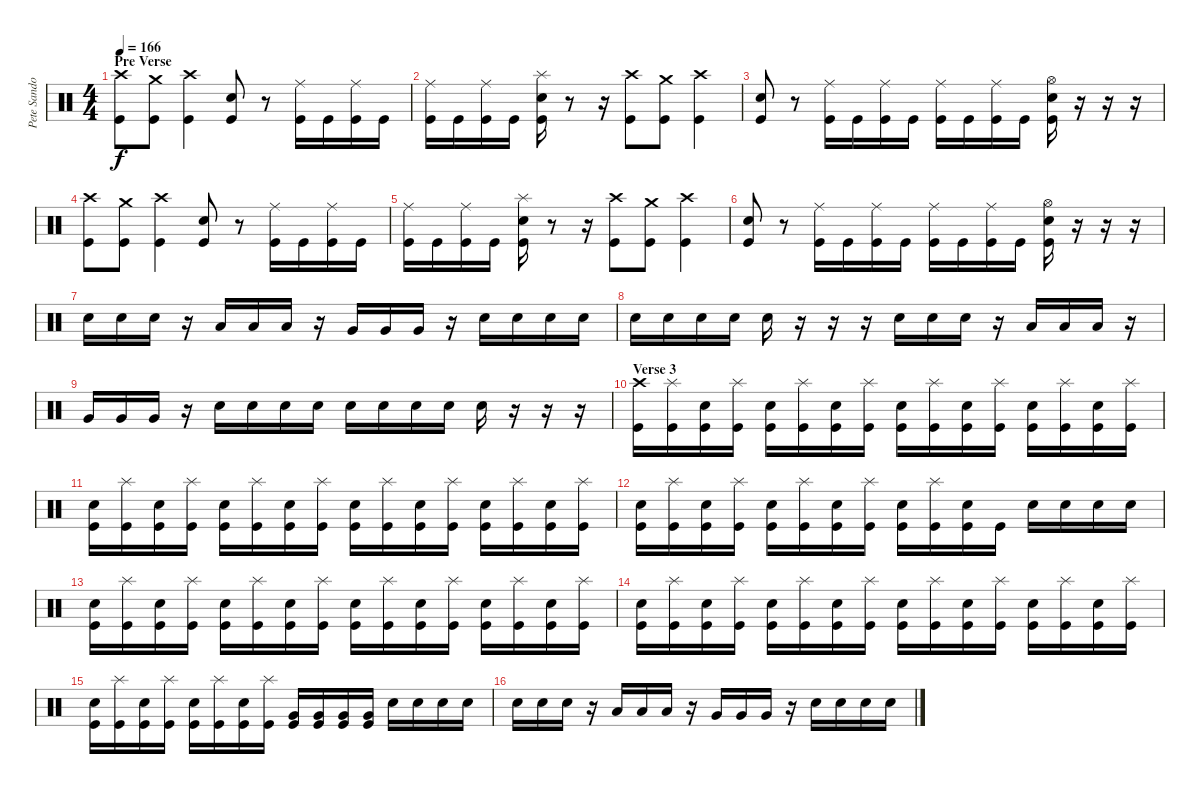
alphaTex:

\track ("Pete Sandoval" "Pete Sando") {instrument percussion}
\staff {score}
\articulation defaults
\ts (4 4)
\section ("" "Pre Verse")
\tempo 166
\clef neutral
\ks c
("Crash high (hit)" "Kick (hit)").8{dy f} ("Crash medium (hit)" "Kick (hit)").8 ("Crash high (hit)" "Kick (hit)").4 ("Electric Snare (hit)" "Kick (hit)").8 r.8 ("Ride (middle)" "Kick (hit)").16 "Kick (hit)".16 ("Ride (middle)" "Kick (hit)").16 "Kick (hit)".16 |
("Ride (middle)" "Kick (hit)").16 "Kick (hit)".16 ("Ride (middle)" "Kick (hit)").16 "Kick (hit)".16 ("Electric Snare (hit)" "Splash (hit)" "Kick (hit)").16 r.8 r.16 ("Crash high (hit)" "Kick (hit)").8 ("Crash medium (hit)" "Kick (hit)").8 ("Crash high (hit)" "Kick (hit)").4 |
("Electric Snare (hit)" "Kick (hit)").8 r.8 ("Ride (middle)" "Kick (hit)").16 "Kick (hit)".16 ("Ride (middle)" "Kick (hit)").16 "Kick (hit)".16 ("Ride (middle)" "Kick (hit)").16 "Kick (hit)".16 ("Ride (middle)" "Kick (hit)").16 "Kick (hit)".16 ("Electric Snare (hit)" "Hi-Hat (open)" "Kick (hit)").16 r.16 r.16 r.16 |
("Crash high (hit)" "Kick (hit)").8 ("Crash medium (hit)" "Kick (hit)").8 ("Crash high (hit)" "Kick (hit)").4 ("Electric Snare (hit)" "Kick (hit)").8 r.8 ("Ride (middle)" "Kick (hit)").16 "Kick (hit)".16 ("Ride (middle)" "Kick (hit)").16 "Kick (hit)".16 |
("Ride (middle)" "Kick (hit)").16 "Kick (hit)".16 ("Ride (middle)" "Kick (hit)").16 "Kick (hit)".16 ("Electric Snare (hit)" "Splash (hit)" "Kick (hit)").16 r.8 r.16 ("Crash high (hit)" "Kick (hit)").8 ("Crash medium (hit)" "Kick (hit)").8 ("Crash high (hit)" "Kick (hit)").4 |
("Electric Snare (hit)" "Kick (hit)").8 r.8 ("Ride (middle)" "Kick (hit)").16 "Kick (hit)".16 ("Ride (middle)" "Kick (hit)").16 "Kick (hit)".16 ("Ride (middle)" "Kick (hit)").16 "Kick (hit)".16 ("Ride (middle)" "Kick (hit)").16 "Kick (hit)".16 ("Electric Snare (hit)" "Hi-Hat (open)" "Kick (hit)").16 r.16 r.16 r.16 |
"Electric Snare (hit)".16 "Electric Snare (hit)".16 "Electric Snare (hit)".16 r.16 "Low Tom (hit)".16 "Low Tom (hit)".16 "Low Tom (hit)".16 r.16 "Very Low Tom (hit)".16 "Very Low Tom (hit)".16 "Very Low Tom (hit)".16 r.16 "Electric Snare (hit)".16 "Electric Snare (hit)".16 "Electric Snare (hit)".16 "Electric Snare (hit)".16 |
"Electric Snare (hit)".16 "Electric Snare (hit)".16 "Electric Snare (hit)".16 "Electric Snare (hit)".16 "Electric Snare (hit)".16 r.16 r.16 r.16 "Electric Snare (hit)".16 "Electric Snare (hit)".16 "Electric Snare (hit)".16 r.16 "Low Tom (hit)".16 "Low Tom (hit)".16 "Low Tom (hit)".16 r.16 |
"Very Low Tom (hit)".16 "Very Low Tom (hit)".16 "Very Low Tom (hit)".16 r.16 "Electric Snare (hit)".16 "Electric Snare (hit)".16 "Electric Snare (hit)".16 "Electric Snare (hit)".16 "Electric Snare (hit)".16 "Electric Snare (hit)".16 "Electric Snare (hit)".16 "Electric Snare (hit)".16 "Electric Snare (hit)".16 r.16 r.16 r.16 |
\section ("" "Verse 3")
("Crash high (hit)" "Kick (hit)").16 ("Splash (hit)" "Kick (hit)").16 ("Electric Snare (hit)" "Kick (hit)").16 ("Splash (hit)" "Kick (hit)").16 ("Electric Snare (hit)" "Kick (hit)").16 ("Splash (hit)" "Kick (hit)").16 ("Electric Snare (hit)" "Kick (hit)").16 ("Splash (hit)" "Kick (hit)").16 ("Electric Snare (hit)" "Kick (hit)").16 ("Splash (hit)" "Kick (hit)").16 ("Electric Snare (hit)" "Kick (hit)").16 ("Splash (hit)" "Kick (hit)").16 ("Electric Snare (hit)" "Kick (hit)").16 ("Splash (hit)" "Kick (hit)").16 ("Electric Snare (hit)" "Kick (hit)").16 ("Splash (hit)" "Kick (hit)").16 |
("Electric Snare (hit)" "Kick (hit)").16 ("Splash (hit)" "Kick (hit)").16 ("Electric Snare (hit)" "Kick (hit)").16 ("Splash (hit)" "Kick (hit)").16 ("Electric Snare (hit)" "Kick (hit)").16 ("Splash (hit)" "Kick (hit)").16 ("Electric Snare (hit)" "Kick (hit)").16 ("Splash (hit)" "Kick (hit)").16 ("Electric Snare (hit)" "Kick (hit)").16 ("Splash (hit)" "Kick (hit)").16 ("Electric Snare (hit)" "Kick (hit)").16 ("Splash (hit)" "Kick (hit)").16 ("Electric Snare (hit)" "Kick (hit)").16 ("Splash (hit)" "Kick (hit)").16 ("Electric Snare (hit)" "Kick (hit)").16 ("Splash (hit)" "Kick (hit)").16 |
("Electric Snare (hit)" "Kick (hit)").16 ("Splash (hit)" "Kick (hit)").16 ("Electric Snare (hit)" "Kick (hit)").16 ("Splash (hit)" "Kick (hit)").16 ("Electric Snare (hit)" "Kick (hit)").16 ("Splash (hit)" "Kick (hit)").16 ("Electric Snare (hit)" "Kick (hit)").16 ("Splash (hit)" "Kick (hit)").16 ("Electric Snare (hit)" "Kick (hit)").16 ("Splash (hit)" "Kick (hit)").16 ("Electric Snare (hit)" "Kick (hit)").16 "Kick (hit)".16 "Electric Snare (hit)".16 "Electric Snare (hit)".16 "Electric Snare (hit)".16 "Electric Snare (hit)".16 |
("Electric Snare (hit)" "Kick (hit)").16 ("Splash (hit)" "Kick (hit)").16 ("Electric Snare (hit)" "Kick (hit)").16 ("Splash (hit)" "Kick (hit)").16 ("Electric Snare (hit)" "Kick (hit)").16 ("Splash (hit)" "Kick (hit)").16 ("Electric Snare (hit)" "Kick (hit)").16 ("Splash (hit)" "Kick (hit)").16 ("Electric Snare (hit)" "Kick (hit)").16 ("Splash (hit)" "Kick (hit)").16 ("Electric Snare (hit)" "Kick (hit)").16 ("Splash (hit)" "Kick (hit)").16 ("Electric Snare (hit)" "Kick (hit)").16 ("Splash (hit)" "Kick (hit)").16 ("Electric Snare (hit)" "Kick (hit)").16 ("Splash (hit)" "Kick (hit)").16 |
("Electric Snare (hit)" "Kick (hit)").16 ("Splash (hit)" "Kick (hit)").16 ("Electric Snare (hit)" "Kick (hit)").16 ("Splash (hit)" "Kick (hit)").16 ("Electric Snare (hit)" "Kick (hit)").16 ("Splash (hit)" "Kick (hit)").16 ("Electric Snare (hit)" "Kick (hit)").16 ("Splash (hit)" "Kick (hit)").16 ("Electric Snare (hit)" "Kick (hit)").16 ("Splash (hit)" "Kick (hit)").16 ("Electric Snare (hit)" "Kick (hit)").16 ("Splash (hit)" "Kick (hit)").16 ("Electric Snare (hit)" "Kick (hit)").16 ("Splash (hit)" "Kick (hit)").16 ("Electric Snare (hit)" "Kick (hit)").16 ("Splash (hit)" "Kick (hit)").16 |
("Electric Snare (hit)" "Kick (hit)").16 ("Splash (hit)" "Kick (hit)").16 ("Electric Snare (hit)" "Kick (hit)").16 ("Splash (hit)" "Kick (hit)").16 ("Electric Snare (hit)" "Kick (hit)").16 ("Splash (hit)" "Kick (hit)").16 ("Electric Snare (hit)" "Kick (hit)").16 ("Splash (hit)" "Kick (hit)").16 ("Very Low Tom (hit)" "Kick (hit)").16 ("Very Low Tom (hit)" "Kick (hit)").16 ("Very Low Tom (hit)" "Kick (hit)").16 ("Very Low Tom (hit)" "Kick (hit)").16 "Electric Snare (hit)".16 "Electric Snare (hit)".16 "Electric Snare (hit)".16 "Electric Snare (hit)".16 |
"Electric Snare (hit)".16 "Electric Snare (hit)".16 "Electric Snare (hit)".16 r.16 "Low Tom (hit)".16 "Low Tom (hit)".16 "Low Tom (hit)".16 r.16 "Very Low Tom (hit)".16 "Very Low Tom (hit)".16 "Very Low Tom (hit)".16 r.16 "Electric Snare (hit)".16 "Electric Snare (hit)".16 "Electric Snare (hit)".16 "Electric Snare (hit)".16
